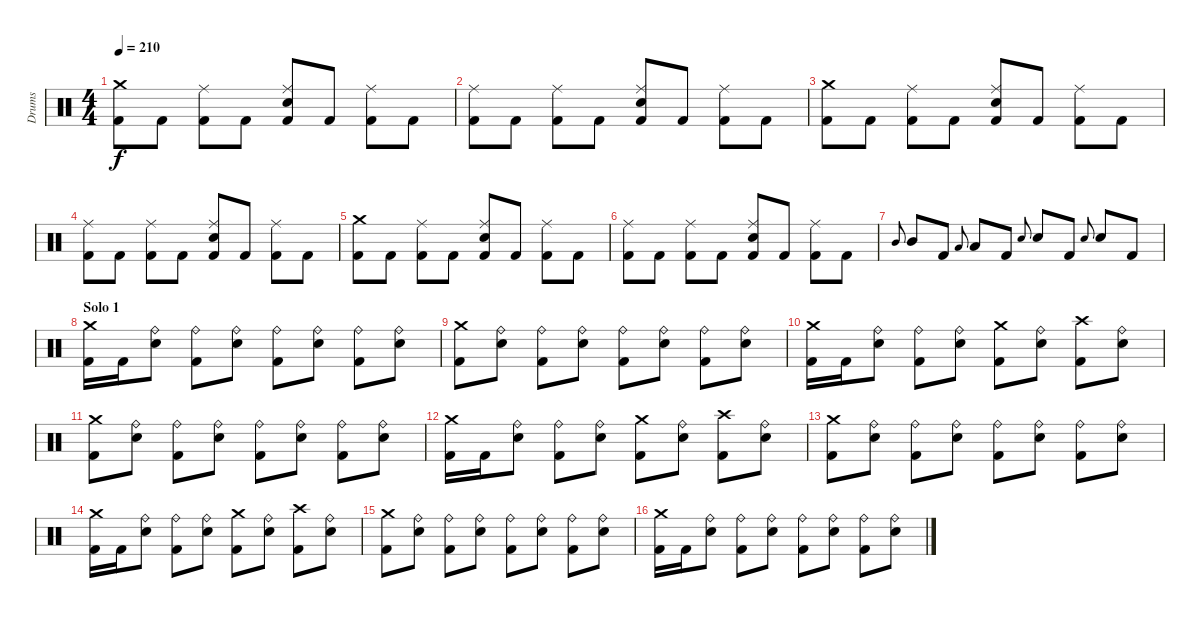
\track ("Drums" "Drums") {instrument percussion}
\staff {score}
\articulation defaults
\ts (4 4)
\tempo 210
\clef neutral
\ks c
("Kick (hit) 2" "Crash medium (hit)").8{dy f} "Kick (hit) 2".8 ("Kick (hit) 2" "Ride (middle)").8 "Kick (hit) 2".8 ("Kick (hit) 2" "Snare (hit) 2" "Ride (middle)").8 "Kick (hit) 2".8 ("Kick (hit) 2" "Ride (middle)").8 "Kick (hit) 2".8 |
("Kick (hit) 2" "Ride (middle)").8 "Kick (hit) 2".8 ("Kick (hit) 2" "Ride (middle)").8 "Kick (hit) 2".8 ("Kick (hit) 2" "Snare (hit) 2" "Ride (middle)").8 "Kick (hit) 2".8 ("Kick (hit) 2" "Ride (middle)").8 "Kick (hit) 2".8 |
("Kick (hit) 2" "Crash medium (hit)").8 "Kick (hit) 2".8 ("Kick (hit) 2" "Ride (middle)").8 "Kick (hit) 2".8 ("Kick (hit) 2" "Snare (hit) 2" "Ride (middle)").8 "Kick (hit) 2".8 ("Kick (hit) 2" "Ride (middle)").8 "Kick (hit) 2".8 |
("Kick (hit) 2" "Ride (middle)").8 "Kick (hit) 2".8 ("Kick (hit) 2" "Ride (middle)").8 "Kick (hit) 2".8 ("Kick (hit) 2" "Snare (hit) 2" "Ride (middle)").8 "Kick (hit) 2".8 ("Kick (hit) 2" "Ride (middle)").8 "Kick (hit) 2".8 |
("Kick (hit) 2" "Crash medium (hit)").8 "Kick (hit) 2".8 ("Kick (hit) 2" "Ride (middle)").8 "Kick (hit) 2".8 ("Kick (hit) 2" "Snare (hit) 2" "Ride (middle)").8 "Kick (hit) 2".8 ("Kick (hit) 2" "Ride (middle)").8 "Kick (hit) 2".8 |
("Kick (hit) 2" "Ride (middle)").8 "Kick (hit) 2".8 ("Kick (hit) 2" "Ride (middle)").8 "Kick (hit) 2".8 ("Kick (hit) 2" "Snare (hit) 2" "Ride (middle)").8 "Kick (hit) 2".8 ("Kick (hit) 2" "Ride (middle)").8 "Kick (hit) 2".8 |
"Mid Tom (hit)".8{gr onbeat} "Mid Tom (hit)".8 "Kick (hit) 2".8 "Low Tom (hit)".8{gr onbeat} "Low Tom (hit)".8 "Kick (hit) 2".8 "Snare (hit) 2".8{gr onbeat} "Snare (hit) 2".8 "Kick (hit) 2".8 "Snare (hit) 2".8{gr onbeat} "Snare (hit) 2".8 "Kick (hit) 2".8 |
\section ("" "Solo 1")
("Kick (hit) 2" "Crash medium (hit)").16 "Kick (hit) 2".16 ("Snare (hit) 2" "Ride (bell)").8 ("Kick (hit) 2" "Ride (bell)").8 ("Snare (hit) 2" "Ride (bell)").8 ("Kick (hit) 2" "Ride (bell)").8 ("Snare (hit) 2" "Ride (bell)").8 ("Kick (hit) 2" "Ride (bell)").8 ("Snare (hit) 2" "Ride (bell)").8 |
("Kick (hit) 2" "Crash medium (hit)").8 ("Snare (hit) 2" "Ride (bell)").8 ("Kick (hit) 2" "Ride (bell)").8 ("Snare (hit) 2" "Ride (bell)").8 ("Kick (hit) 2" "Ride (bell)").8 ("Snare (hit) 2" "Ride (bell)").8 ("Kick (hit) 2" "Ride (bell)").8 ("Snare (hit) 2" "Ride (bell)").8 |
("Kick (hit) 2" "Crash medium (hit)").16 "Kick (hit) 2".16 ("Snare (hit) 2" "Ride (bell)").8 ("Kick (hit) 2" "Ride (bell)").8 ("Snare (hit) 2" "Ride (bell)").8 ("Kick (hit) 2" "Crash medium (hit)").8 ("Snare (hit) 2" "Ride (bell)").8 ("Kick (hit) 2" "Crash high (hit)").8 ("Snare (hit) 2" "Ride (bell)").8 |
("Kick (hit) 2" "Crash medium (hit)").8 ("Snare (hit) 2" "Ride (bell)").8 ("Kick (hit) 2" "Ride (bell)").8 ("Snare (hit) 2" "Ride (bell)").8 ("Kick (hit) 2" "Ride (bell)").8 ("Snare (hit) 2" "Ride (bell)").8 ("Kick (hit) 2" "Ride (bell)").8 ("Snare (hit) 2" "Ride (bell)").8 |
("Kick (hit) 2" "Crash medium (hit)").16 "Kick (hit) 2".16 ("Snare (hit) 2" "Ride (bell)").8 ("Kick (hit) 2" "Ride (bell)").8 ("Snare (hit) 2" "Ride (bell)").8 ("Kick (hit) 2" "Crash medium (hit)").8 ("Snare (hit) 2" "Ride (bell)").8 ("Kick (hit) 2" "Crash high (hit)").8 ("Snare (hit) 2" "Ride (bell)").8 |
("Kick (hit) 2" "Crash medium (hit)").8 ("Snare (hit) 2" "Ride (bell)").8 ("Kick (hit) 2" "Ride (bell)").8 ("Snare (hit) 2" "Ride (bell)").8 ("Kick (hit) 2" "Ride (bell)").8 ("Snare (hit) 2" "Ride (bell)").8 ("Kick (hit) 2" "Ride (bell)").8 ("Snare (hit) 2" "Ride (bell)").8 |
("Kick (hit) 2" "Crash medium (hit)").16 "Kick (hit) 2".16 ("Snare (hit) 2" "Ride (bell)").8 ("Kick (hit) 2" "Ride (bell)").8 ("Snare (hit) 2" "Ride (bell)").8 ("Kick (hit) 2" "Crash medium (hit)").8 ("Snare (hit) 2" "Ride (bell)").8 ("Kick (hit) 2" "Crash high (hit)").8 ("Snare (hit) 2" "Ride (bell)").8 |
("Kick (hit) 2" "Crash medium (hit)").8 ("Snare (hit) 2" "Ride (bell)").8 ("Kick (hit) 2" "Ride (bell)").8 ("Snare (hit) 2" "Ride (bell)").8 ("Kick (hit) 2" "Ride (bell)").8 ("Snare (hit) 2" "Ride (bell)").8 ("Kick (hit) 2" "Ride (bell)").8 ("Snare (hit) 2" "Ride (bell)").8 |
("Kick (hit) 2" "Crash medium (hit)").16 "Kick (hit) 2".16 ("Snare (hit) 2" "Ride (bell)").8 ("Kick (hit) 2" "Ride (bell)").8 ("Snare (hit) 2" "Ride (bell)").8 ("Kick (hit) 2" "Ride (bell)").8 ("Snare (hit) 2" "Ride (bell)").8 ("Kick (hit) 2" "Ride (bell)").8 ("Snare (hit) 2" "Ride (bell)").8
